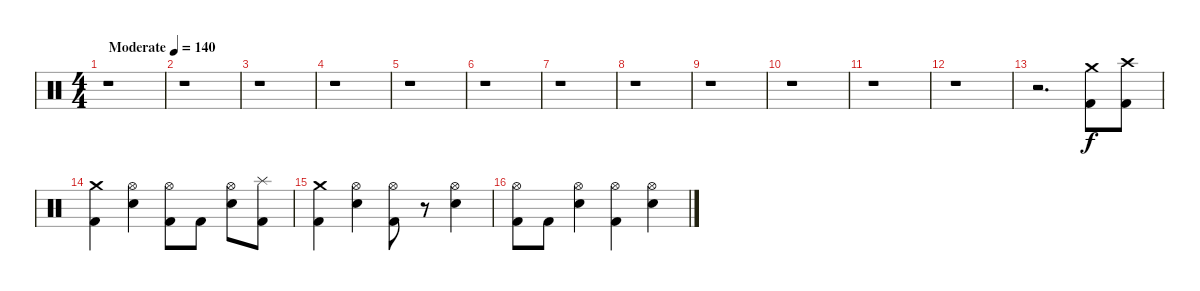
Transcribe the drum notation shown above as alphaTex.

\track "" {instrument percussion}
\staff {score}
\articulation defaults
\ts (4 4)
\tempo (140 "Moderate")
\clef neutral
\ks c
r.1{dy f} |
r.1 |
r.1 |
r.1 |
r.1 |
r.1 |
r.1 |
r.1 |
r.1 |
r.1 |
r.1 |
r.1 |
r.2{d} ("Crash medium (hit)" "Kick (hit) 2").8 ("Crash high (hit)" "Kick (hit) 2").8 |
("Crash medium (hit)" "Kick (hit) 2").4 ("Hi-Hat (open)" "Electric Snare (hit)").4 ("Hi-Hat (open)" "Kick (hit) 2").8 "Kick (hit) 2".8 ("Hi-Hat (open)" "Electric Snare (hit)").8 ("Splash (hit)" "Kick (hit) 2").8 |
("Crash medium (hit)" "Kick (hit) 2").4 ("Hi-Hat (open)" "Electric Snare (hit)").4 ("Hi-Hat (open)" "Kick (hit) 2").8 r.8 ("Hi-Hat (open)" "Electric Snare (hit)").4 |
("Hi-Hat (open)" "Kick (hit) 2").8 "Kick (hit) 2".8 ("Hi-Hat (open)" "Electric Snare (hit)").4 ("Hi-Hat (open)" "Kick (hit) 2").4 ("Hi-Hat (open)" "Electric Snare (hit)").4
